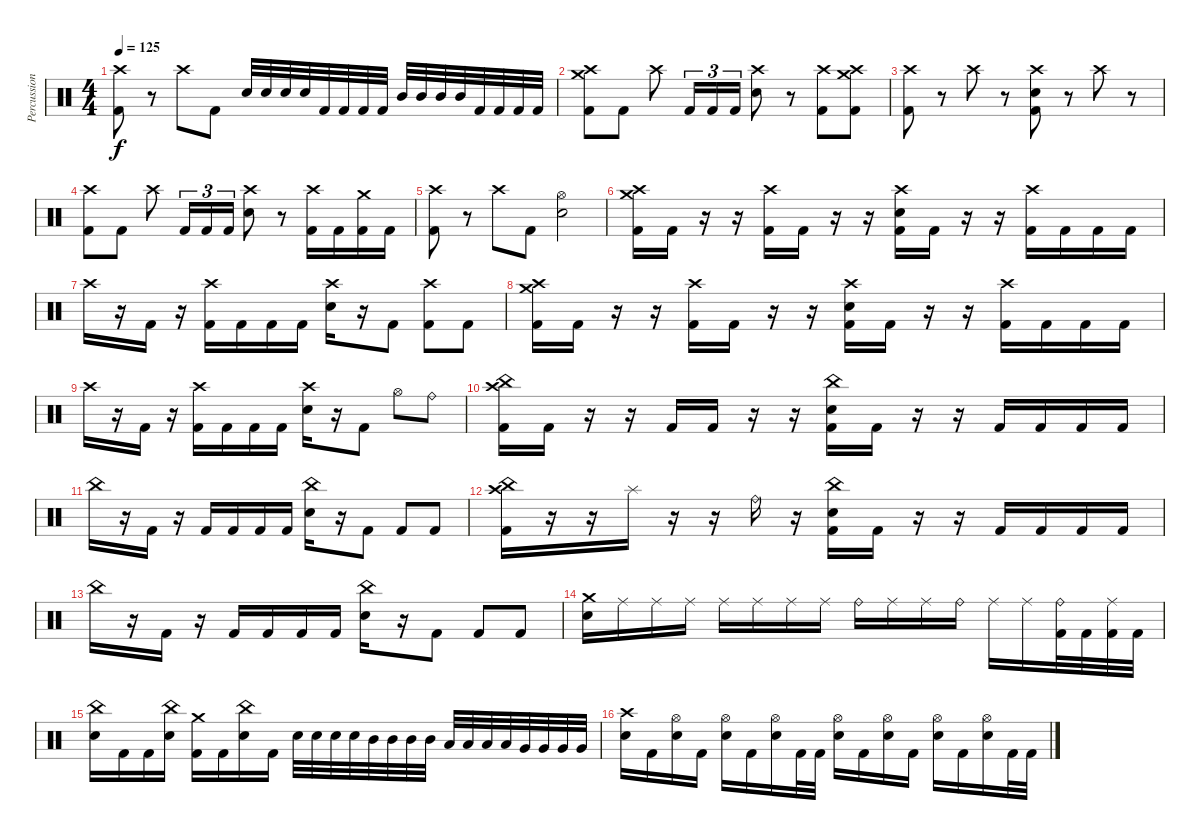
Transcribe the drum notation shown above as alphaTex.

\track ("Percussion" "Percussion") {instrument percussion}
\staff {score}
\articulation defaults
\ts (4 4)
\tempo 125
\clef neutral
\ks c
("Crash high (hit)" "Kick (hit) 2").8{dy f} r.8 "Crash high (hit)".8 "Kick (hit) 2".8 "Electric Snare (hit)".32 "Electric Snare (hit)".32 "Electric Snare (hit)".32 "Electric Snare (hit)".32 "Kick (hit) 2".32 "Kick (hit) 2".32 "Kick (hit) 2".32 "Kick (hit) 2".32 "Mid Tom (hit)".32 "Mid Tom (hit)".32 "Mid Tom (hit)".32 "Mid Tom (hit)".32 "Kick (hit) 2".32 "Kick (hit) 2".32 "Kick (hit) 2".32 "Kick (hit) 2".32 |
("Crash medium (hit)" "Crash high (hit)" "Kick (hit) 2").8 "Kick (hit) 2".8 "Crash high (hit)".8 "Kick (hit) 2".16{tu (3 2)} "Kick (hit) 2".16{tu (3 2)} "Kick (hit) 2".16{tu (3 2)} ("Crash high (hit)" "Electric Snare (hit)").8 r.8 ("Crash high (hit)" "Kick (hit) 2").8 ("Crash medium (hit)" "Crash high (hit)" "Kick (hit) 2").8 |
("Crash high (hit)" "Kick (hit) 2").8 r.8 "Crash high (hit)".8 r.8 ("Crash high (hit)" "Electric Snare (hit)" "Kick (hit) 2").8 r.8 "Crash high (hit)".8 r.8 |
("Crash high (hit)" "Kick (hit) 2").8 "Kick (hit) 2".8 "Crash high (hit)".8 "Kick (hit) 2".16{tu (3 2)} "Kick (hit) 2".16{tu (3 2)} "Kick (hit) 2".16{tu (3 2)} ("Crash high (hit)" "Electric Snare (hit)").8 r.8 ("Crash high (hit)" "Kick (hit) 2").16 "Kick (hit) 2".16 ("Crash medium (hit)" "Kick (hit) 2").16 "Kick (hit) 2".16 |
("Crash high (hit)" "Kick (hit) 2").8 r.8 "Crash high (hit)".8 "Kick (hit) 2".8 ("Hi-Hat (open)" "Electric Snare (hit)").2 |
("Crash medium (hit)" "Crash high (hit)" "Kick (hit) 2").16 "Kick (hit) 2".16 r.16 r.16 ("Crash high (hit)" "Kick (hit) 2").16 "Kick (hit) 2".16 r.16 r.16 ("Crash high (hit)" "Electric Snare (hit)" "Kick (hit) 2").16 "Kick (hit) 2".16 r.16 r.16 ("Crash high (hit)" "Kick (hit) 2").16 "Kick (hit) 2".16 "Kick (hit) 2".16 "Kick (hit) 2".16 |
"Crash high (hit)".16 r.16 "Kick (hit) 2".16 r.16 ("Crash high (hit)" "Kick (hit) 2").16 "Kick (hit) 2".16 "Kick (hit) 2".16 "Kick (hit) 2".16 ("Crash high (hit)" "Electric Snare (hit)").16 r.16 "Kick (hit) 2".8 ("Crash high (hit)" "Kick (hit) 2").8 "Kick (hit) 2".8 |
("Crash medium (hit)" "Crash high (hit)" "Kick (hit) 2").16 "Kick (hit) 2".16 r.16 r.16 ("Crash high (hit)" "Kick (hit) 2").16 "Kick (hit) 2".16 r.16 r.16 ("Crash high (hit)" "Electric Snare (hit)" "Kick (hit) 2").16 "Kick (hit) 2".16 r.16 r.16 ("Crash high (hit)" "Kick (hit) 2").16 "Kick (hit) 2".16 "Kick (hit) 2".16 "Kick (hit) 2".16 |
"Crash high (hit)".16 r.16 "Kick (hit) 2".16 r.16 ("Crash high (hit)" "Kick (hit) 2").16 "Kick (hit) 2".16 "Kick (hit) 2".16 "Kick (hit) 2".16 ("Crash high (hit)" "Electric Snare (hit)").16 r.16 "Kick (hit) 2".8 "Hi-Hat (open)".8 "Ride (bell)".8 |
("Crash high (hit)" "China (hit)" "Kick (hit) 2").16 "Kick (hit) 2".16 r.16 r.16 "Kick (hit) 2".16 "Kick (hit) 2".16 r.16 r.16 ("China (hit)" "Electric Snare (hit)" "Kick (hit) 2").16 "Kick (hit) 2".16 r.16 r.16 "Kick (hit) 2".16 "Kick (hit) 2".16 "Kick (hit) 2".16 "Kick (hit) 2".16 |
"China (hit)".16 r.16 "Kick (hit) 2".16 r.16 "Kick (hit) 2".16 "Kick (hit) 2".16 "Kick (hit) 2".16 "Kick (hit) 2".16 ("China (hit)" "Electric Snare (hit)").16 r.16 "Kick (hit) 2".8 "Kick (hit) 2".8 "Kick (hit) 2".8 |
("Crash high (hit)" "China (hit)" "Kick (hit) 2").16 r.16 r.16 "Splash (hit)".16 r.16 r.16 "Ride (bell)".16 r.16 ("China (hit)" "Electric Snare (hit)" "Kick (hit) 2").16 "Kick (hit) 2".16 r.16 r.16 "Kick (hit) 2".16 "Kick (hit) 2".16 "Kick (hit) 2".16 "Kick (hit) 2".16 |
"China (hit)".16 r.16 "Kick (hit) 2".16 r.16 "Kick (hit) 2".16 "Kick (hit) 2".16 "Kick (hit) 2".16 "Kick (hit) 2".16 ("China (hit)" "Electric Snare (hit)").16 r.16 "Kick (hit) 2".8 "Kick (hit) 2".8 "Kick (hit) 2".8 |
("Crash medium (hit)" "Electric Snare (hit)").16 "Ride (middle)".16 "Ride (middle)".16 "Ride (middle)".16 "Ride (middle)".16 "Ride (middle)".16 "Ride (middle)".16 "Ride (middle)".16 "Ride (bell)".16 "Ride (middle)".16 "Ride (middle)".16 "Ride (bell)".16 "Ride (middle)".16 "Ride (middle)".16 ("Ride (bell)" "Kick (hit) 2").32 "Kick (hit) 2".32 ("Ride (middle)" "Kick (hit) 2").32 "Kick (hit) 2".32 |
("China (hit)" "Electric Snare (hit)").16 "Kick (hit) 2".16 "Kick (hit) 2".16 ("China (hit)" "Electric Snare (hit)").16 ("Crash medium (hit)" "Kick (hit) 2").16 "Kick (hit) 2".16 ("China (hit)" "Electric Snare (hit)").16 "Kick (hit) 2".16 "Electric Snare (hit)".32 "Electric Snare (hit)".32 "Electric Snare (hit)".32 "Electric Snare (hit)".32 "Mid Tom (hit)".32 "Mid Tom (hit)".32 "Mid Tom (hit)".32 "Mid Tom (hit)".32 "Low Tom (hit)".32 "Low Tom (hit)".32 "Low Tom (hit)".32 "Low Tom (hit)".32 "Very Low Tom (hit)".32 "Very Low Tom (hit)".32 "Very Low Tom (hit)".32 "Very Low Tom (hit)".32 |
("Crash high (hit)" "Electric Snare (hit)").16 "Kick (hit) 2".16 ("Hi-Hat (open)" "Electric Snare (hit)").16 "Kick (hit) 2".16 ("Hi-Hat (open)" "Electric Snare (hit)").16 "Kick (hit) 2".16 ("Hi-Hat (open)" "Electric Snare (hit)").16 "Kick (hit) 2".32 "Kick (hit) 2".32 ("Hi-Hat (open)" "Electric Snare (hit)").16 "Kick (hit) 2".16 ("Hi-Hat (open)" "Electric Snare (hit)").16 "Kick (hit) 2".16 ("Hi-Hat (open)" "Electric Snare (hit)").16 "Kick (hit) 2".16 ("Hi-Hat (open)" "Electric Snare (hit)").16 "Kick (hit) 2".32 "Kick (hit) 2".32
